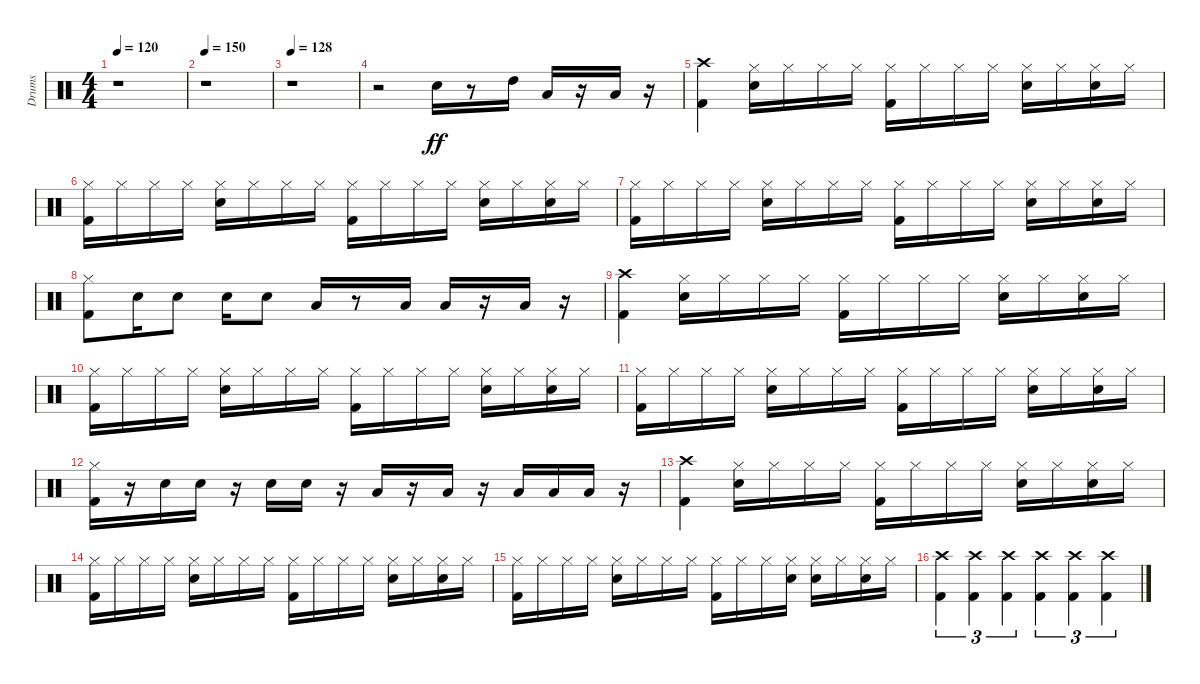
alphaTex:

\track ("Drums" "Drums") {instrument percussion}
\staff {score}
\articulation defaults
\ts (4 4)
\tempo 120
\clef neutral
\ks c
r.1{dy ff} |
\tempo 150
r.1 |
\tempo 128
r.1 |
r.2 "Snare (hit) 2".16 r.8 "High Tom (hit)".16 "Low Tom (hit)".16 r.16 "Low Tom (hit)".16 r.16 |
("Kick (hit) 2" "Crash high (hit)").4 ("Snare (hit) 2" "Hi-Hat (closed)").16 "Hi-Hat (closed)".16 "Hi-Hat (closed)".16 "Hi-Hat (closed)".16 ("Kick (hit) 2" "Hi-Hat (closed)").16 "Hi-Hat (closed)".16 "Hi-Hat (closed)".16 "Hi-Hat (closed)".16 ("Snare (hit) 2" "Hi-Hat (closed)").16 "Hi-Hat (closed)".16 ("Snare (hit) 2" "Hi-Hat (closed)").16 "Hi-Hat (closed)".16 |
("Kick (hit) 2" "Hi-Hat (closed)").16 "Hi-Hat (closed)".16 "Hi-Hat (closed)".16 "Hi-Hat (closed)".16 ("Snare (hit) 2" "Hi-Hat (closed)").16 "Hi-Hat (closed)".16 "Hi-Hat (closed)".16 "Hi-Hat (closed)".16 ("Kick (hit) 2" "Hi-Hat (closed)").16 "Hi-Hat (closed)".16 "Hi-Hat (closed)".16 "Hi-Hat (closed)".16 ("Snare (hit) 2" "Hi-Hat (closed)").16 "Hi-Hat (closed)".16 ("Snare (hit) 2" "Hi-Hat (closed)").16 "Hi-Hat (closed)".16 |
("Kick (hit) 2" "Hi-Hat (closed)").16 "Hi-Hat (closed)".16 "Hi-Hat (closed)".16 "Hi-Hat (closed)".16 ("Snare (hit) 2" "Hi-Hat (closed)").16 "Hi-Hat (closed)".16 "Hi-Hat (closed)".16 "Hi-Hat (closed)".16 ("Kick (hit) 2" "Hi-Hat (closed)").16 "Hi-Hat (closed)".16 "Hi-Hat (closed)".16 "Hi-Hat (closed)".16 ("Snare (hit) 2" "Hi-Hat (closed)").16 "Hi-Hat (closed)".16 ("Snare (hit) 2" "Hi-Hat (closed)").16 "Hi-Hat (closed)".16 |
("Kick (hit) 2" "Hi-Hat (closed)").8 "Snare (hit) 2".16 "Snare (hit) 2".8 "Snare (hit) 2".16 "Snare (hit) 2".8 "Low Tom (hit)".16 r.8 "Low Tom (hit)".16 "Low Tom (hit)".16 r.16 "Low Tom (hit)".16 r.16 |
("Kick (hit) 2" "Crash high (hit)").4 ("Snare (hit) 2" "Hi-Hat (closed)").16 "Hi-Hat (closed)".16 "Hi-Hat (closed)".16 "Hi-Hat (closed)".16 ("Kick (hit) 2" "Hi-Hat (closed)").16 "Hi-Hat (closed)".16 "Hi-Hat (closed)".16 "Hi-Hat (closed)".16 ("Snare (hit) 2" "Hi-Hat (closed)").16 "Hi-Hat (closed)".16 ("Snare (hit) 2" "Hi-Hat (closed)").16 "Hi-Hat (closed)".16 |
("Kick (hit) 2" "Hi-Hat (closed)").16 "Hi-Hat (closed)".16 "Hi-Hat (closed)".16 "Hi-Hat (closed)".16 ("Snare (hit) 2" "Hi-Hat (closed)").16 "Hi-Hat (closed)".16 "Hi-Hat (closed)".16 "Hi-Hat (closed)".16 ("Kick (hit) 2" "Hi-Hat (closed)").16 "Hi-Hat (closed)".16 "Hi-Hat (closed)".16 "Hi-Hat (closed)".16 ("Snare (hit) 2" "Hi-Hat (closed)").16 "Hi-Hat (closed)".16 ("Snare (hit) 2" "Hi-Hat (closed)").16 "Hi-Hat (closed)".16 |
("Kick (hit) 2" "Hi-Hat (closed)").16 "Hi-Hat (closed)".16 "Hi-Hat (closed)".16 "Hi-Hat (closed)".16 ("Snare (hit) 2" "Hi-Hat (closed)").16 "Hi-Hat (closed)".16 "Hi-Hat (closed)".16 "Hi-Hat (closed)".16 ("Kick (hit) 2" "Hi-Hat (closed)").16 "Hi-Hat (closed)".16 "Hi-Hat (closed)".16 "Hi-Hat (closed)".16 ("Snare (hit) 2" "Hi-Hat (closed)").16 "Hi-Hat (closed)".16 ("Snare (hit) 2" "Hi-Hat (closed)").16 "Hi-Hat (closed)".16 |
("Kick (hit) 2" "Hi-Hat (closed)").16 r.16 "Snare (hit) 2".16 "Snare (hit) 2".16 r.16 "Snare (hit) 2".16 "Snare (hit) 2".16 r.16 "Low Tom (hit)".16 r.16 "Low Tom (hit)".16 r.16 "Low Tom (hit)".16 "Low Tom (hit)".16 "Low Tom (hit)".16 r.16 |
("Kick (hit) 2" "Crash high (hit)").4 ("Snare (hit) 2" "Hi-Hat (closed)").16 "Hi-Hat (closed)".16 "Hi-Hat (closed)".16 "Hi-Hat (closed)".16 ("Kick (hit) 2" "Hi-Hat (closed)").16 "Hi-Hat (closed)".16 "Hi-Hat (closed)".16 "Hi-Hat (closed)".16 ("Snare (hit) 2" "Hi-Hat (closed)").16 "Hi-Hat (closed)".16 ("Snare (hit) 2" "Hi-Hat (closed)").16 "Hi-Hat (closed)".16 |
("Kick (hit) 2" "Hi-Hat (closed)").16 "Hi-Hat (closed)".16 "Hi-Hat (closed)".16 "Hi-Hat (closed)".16 ("Snare (hit) 2" "Hi-Hat (closed)").16 "Hi-Hat (closed)".16 "Hi-Hat (closed)".16 "Hi-Hat (closed)".16 ("Kick (hit) 2" "Hi-Hat (closed)").16 "Hi-Hat (closed)".16 "Hi-Hat (closed)".16 "Hi-Hat (closed)".16 ("Snare (hit) 2" "Hi-Hat (closed)").16 "Hi-Hat (closed)".16 ("Snare (hit) 2" "Hi-Hat (closed)").16 "Hi-Hat (closed)".16 |
("Kick (hit) 2" "Hi-Hat (closed)").16 "Hi-Hat (closed)".16 "Hi-Hat (closed)".16 "Hi-Hat (closed)".16 ("Snare (hit) 2" "Hi-Hat (closed)").16 "Hi-Hat (closed)".16 "Hi-Hat (closed)".16 "Hi-Hat (closed)".16 ("Kick (hit) 2" "Hi-Hat (closed)").16 "Hi-Hat (closed)".16 "Hi-Hat (closed)".16 ("Hi-Hat (closed)" "Snare (hit) 2").16 ("Snare (hit) 2" "Hi-Hat (closed)").16 "Hi-Hat (closed)".16 ("Snare (hit) 2" "Hi-Hat (closed)").16 "Hi-Hat (closed)".16 |
("Kick (hit) 2" "Crash high (hit)").4{tu (3 2)} ("Kick (hit) 2" "Crash high (hit)").4{tu (3 2)} ("Kick (hit) 2" "Crash high (hit)").4{tu (3 2)} ("Kick (hit) 2" "Crash high (hit)").4{tu (3 2)} ("Kick (hit) 2" "Crash high (hit)").4{tu (3 2)} ("Kick (hit) 2" "Crash high (hit)").4{tu (3 2)}
